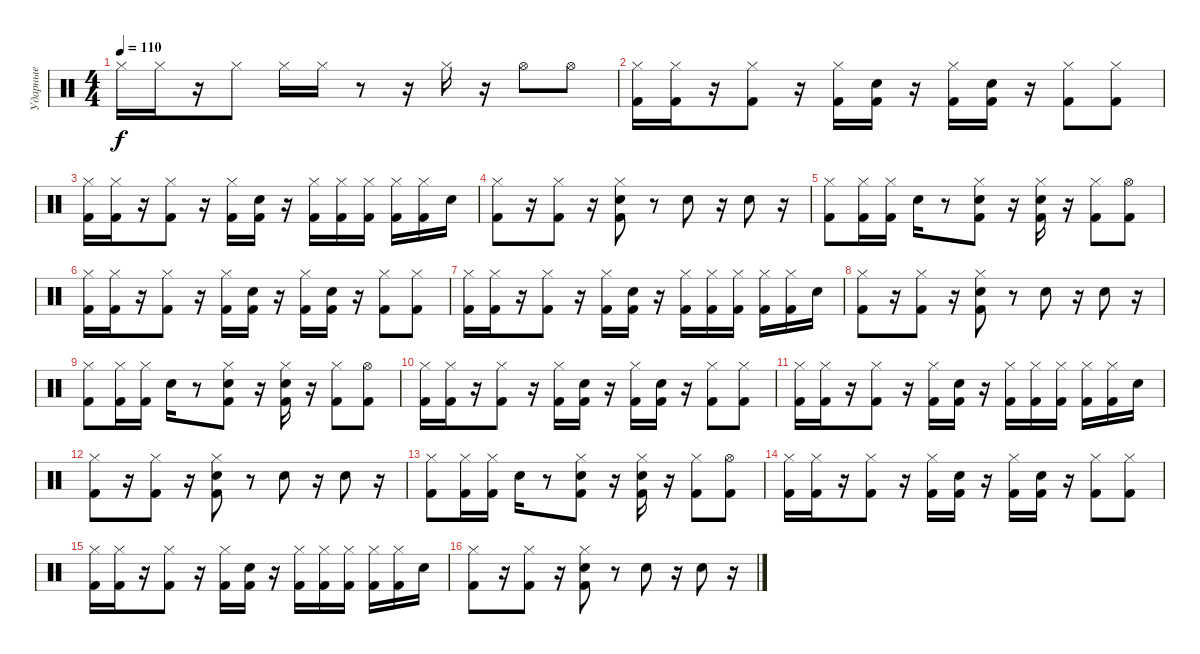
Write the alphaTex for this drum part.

\track ("Ударные" "Ударные") {instrument percussion}
\staff {score}
\articulation defaults
\ts (4 4)
\tempo 110
\clef neutral
\ks c "Hi-Hat (closed)".16{dy f} "Hi-Hat (closed)".16
r.16 "Hi-Hat (closed)".8 "Hi-Hat (closed)".16 "Hi-Hat (closed)".16 r.8 r.16 "Hi-Hat (closed)".16 r.16 "Hi-Hat (open)".8 "Hi-Hat (open)".8 |
("Hi-Hat (closed)" "Kick (hit) 2").16 ("Hi-Hat (closed)" "Kick (hit) 2").16 r.16 ("Hi-Hat (closed)" "Kick (hit) 2").8 r.16 ("Hi-Hat (closed)" "Kick (hit) 2").16 ("Snare (hit) 2" "Kick (hit) 2").16 r.16 ("Hi-Hat (closed)" "Kick (hit) 2").16 ("Snare (hit) 2" "Kick (hit) 2").16 r.16 ("Hi-Hat (closed)" "Kick (hit) 2").8 ("Hi-Hat (closed)" "Kick (hit) 2").8 |
("Hi-Hat (closed)" "Kick (hit) 2").16 ("Hi-Hat (closed)" "Kick (hit) 2").16 r.16 ("Hi-Hat (closed)" "Kick (hit) 2").8 r.16 ("Hi-Hat (closed)" "Kick (hit) 2").16 ("Snare (hit) 2" "Kick (hit) 2").16 r.16 ("Hi-Hat (closed)" "Kick (hit) 2").16 ("Hi-Hat (closed)" "Kick (hit) 2").16 ("Hi-Hat (closed)" "Kick (hit) 2").16 ("Hi-Hat (closed)" "Kick (hit) 2").16 ("Hi-Hat (closed)" "Kick (hit) 2").16 "Snare (hit) 2".16 |
("Hi-Hat (closed)" "Kick (hit) 2").8 r.16 ("Hi-Hat (closed)" "Kick (hit) 2").8 r.16 ("Snare (hit) 2" "Hi-Hat (closed)" "Kick (hit) 2").8 r.8 "Snare (hit) 2".8 r.16 "Snare (hit) 2".8 r.16 |
("Hi-Hat (closed)" "Kick (hit) 2").8 ("Hi-Hat (closed)" "Kick (hit) 2").16 ("Hi-Hat (closed)" "Kick (hit) 2").16 "Snare (hit) 2".16 r.8 ("Snare (hit) 2" "Hi-Hat (closed)" "Kick (hit) 2").8 r.16 ("Snare (hit) 2" "Hi-Hat (closed)" "Kick (hit) 2").16 r.16 ("Hi-Hat (closed)" "Kick (hit) 2").8 ("Hi-Hat (open)" "Kick (hit) 2").8 |
("Hi-Hat (closed)" "Kick (hit) 2").16 ("Hi-Hat (closed)" "Kick (hit) 2").16 r.16 ("Hi-Hat (closed)" "Kick (hit) 2").8 r.16 ("Hi-Hat (closed)" "Kick (hit) 2").16 ("Snare (hit) 2" "Kick (hit) 2").16 r.16 ("Hi-Hat (closed)" "Kick (hit) 2").16 ("Snare (hit) 2" "Kick (hit) 2").16 r.16 ("Hi-Hat (closed)" "Kick (hit) 2").8 ("Hi-Hat (closed)" "Kick (hit) 2").8 |
("Hi-Hat (closed)" "Kick (hit) 2").16 ("Hi-Hat (closed)" "Kick (hit) 2").16 r.16 ("Hi-Hat (closed)" "Kick (hit) 2").8 r.16 ("Hi-Hat (closed)" "Kick (hit) 2").16 ("Snare (hit) 2" "Kick (hit) 2").16 r.16 ("Hi-Hat (closed)" "Kick (hit) 2").16 ("Hi-Hat (closed)" "Kick (hit) 2").16 ("Hi-Hat (closed)" "Kick (hit) 2").16 ("Hi-Hat (closed)" "Kick (hit) 2").16 ("Hi-Hat (closed)" "Kick (hit) 2").16 "Snare (hit) 2".16 |
("Hi-Hat (closed)" "Kick (hit) 2").8 r.16 ("Hi-Hat (closed)" "Kick (hit) 2").8 r.16 ("Snare (hit) 2" "Hi-Hat (closed)" "Kick (hit) 2").8 r.8 "Snare (hit) 2".8 r.16 "Snare (hit) 2".8 r.16 |
("Hi-Hat (closed)" "Kick (hit) 2").8 ("Hi-Hat (closed)" "Kick (hit) 2").16 ("Hi-Hat (closed)" "Kick (hit) 2").16 "Snare (hit) 2".16 r.8 ("Snare (hit) 2" "Hi-Hat (closed)" "Kick (hit) 2").8 r.16 ("Snare (hit) 2" "Hi-Hat (closed)" "Kick (hit) 2").16 r.16 ("Hi-Hat (closed)" "Kick (hit) 2").8 ("Hi-Hat (open)" "Kick (hit) 2").8 |
("Hi-Hat (closed)" "Kick (hit) 2").16 ("Hi-Hat (closed)" "Kick (hit) 2").16 r.16 ("Hi-Hat (closed)" "Kick (hit) 2").8 r.16 ("Hi-Hat (closed)" "Kick (hit) 2").16 ("Snare (hit) 2" "Kick (hit) 2").16 r.16 ("Hi-Hat (closed)" "Kick (hit) 2").16 ("Snare (hit) 2" "Kick (hit) 2").16 r.16 ("Hi-Hat (closed)" "Kick (hit) 2").8 ("Hi-Hat (closed)" "Kick (hit) 2").8 |
("Hi-Hat (closed)" "Kick (hit) 2").16 ("Hi-Hat (closed)" "Kick (hit) 2").16 r.16 ("Hi-Hat (closed)" "Kick (hit) 2").8 r.16 ("Hi-Hat (closed)" "Kick (hit) 2").16 ("Snare (hit) 2" "Kick (hit) 2").16 r.16 ("Hi-Hat (closed)" "Kick (hit) 2").16 ("Hi-Hat (closed)" "Kick (hit) 2").16 ("Hi-Hat (closed)" "Kick (hit) 2").16 ("Hi-Hat (closed)" "Kick (hit) 2").16 ("Hi-Hat (closed)" "Kick (hit) 2").16 "Snare (hit) 2".16 |
("Hi-Hat (closed)" "Kick (hit) 2").8 r.16 ("Hi-Hat (closed)" "Kick (hit) 2").8 r.16 ("Snare (hit) 2" "Hi-Hat (closed)" "Kick (hit) 2").8 r.8 "Snare (hit) 2".8 r.16 "Snare (hit) 2".8 r.16 |
("Hi-Hat (closed)" "Kick (hit) 2").8 ("Hi-Hat (closed)" "Kick (hit) 2").16 ("Hi-Hat (closed)" "Kick (hit) 2").16 "Snare (hit) 2".16 r.8 ("Snare (hit) 2" "Hi-Hat (closed)" "Kick (hit) 2").8 r.16 ("Snare (hit) 2" "Hi-Hat (closed)" "Kick (hit) 2").16 r.16 ("Hi-Hat (closed)" "Kick (hit) 2").8 ("Hi-Hat (open)" "Kick (hit) 2").8 |
("Hi-Hat (closed)" "Kick (hit) 2").16 ("Hi-Hat (closed)" "Kick (hit) 2").16 r.16 ("Hi-Hat (closed)" "Kick (hit) 2").8 r.16 ("Hi-Hat (closed)" "Kick (hit) 2").16 ("Snare (hit) 2" "Kick (hit) 2").16 r.16 ("Hi-Hat (closed)" "Kick (hit) 2").16 ("Snare (hit) 2" "Kick (hit) 2").16 r.16 ("Hi-Hat (closed)" "Kick (hit) 2").8 ("Hi-Hat (closed)" "Kick (hit) 2").8 |
("Hi-Hat (closed)" "Kick (hit) 2").16 ("Hi-Hat (closed)" "Kick (hit) 2").16 r.16 ("Hi-Hat (closed)" "Kick (hit) 2").8 r.16 ("Hi-Hat (closed)" "Kick (hit) 2").16 ("Snare (hit) 2" "Kick (hit) 2").16 r.16 ("Hi-Hat (closed)" "Kick (hit) 2").16 ("Hi-Hat (closed)" "Kick (hit) 2").16 ("Hi-Hat (closed)" "Kick (hit) 2").16 ("Hi-Hat (closed)" "Kick (hit) 2").16 ("Hi-Hat (closed)" "Kick (hit) 2").16 "Snare (hit) 2".16 |
("Hi-Hat (closed)" "Kick (hit) 2").8 r.16 ("Hi-Hat (closed)" "Kick (hit) 2").8 r.16 ("Snare (hit) 2" "Hi-Hat (closed)" "Kick (hit) 2").8 r.8 "Snare (hit) 2".8 r.16 "Snare (hit) 2".8 r.16
